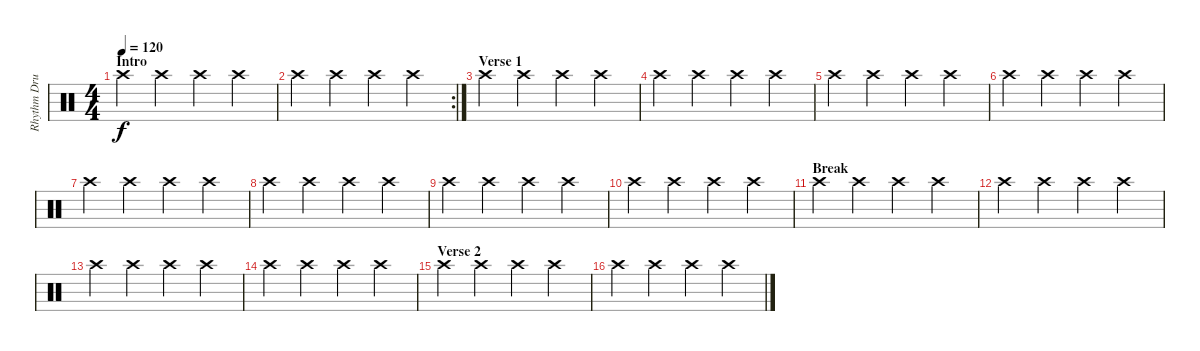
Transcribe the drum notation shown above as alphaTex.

\track ("Rhythm Drums (crash cymbal)" "Rhythm Dru") {instrument percussion}
\staff {score}
\articulation defaults
\ts (4 4)
\section ("" "Intro")
\tempo 120
\clef neutral
\ks c "Crash high (hit)".4{dy f} "Crash high (hit)".4 "Crash high (hit)".4 "Crash high (hit)".4
|
\rc 2 "Crash high (hit)".4 "Crash high (hit)".4 "Crash high (hit)".4 "Crash high (hit)".4
|
\section ("" "Verse 1")
"Crash high (hit)".4 "Crash high (hit)".4 "Crash high (hit)".4 "Crash high (hit)".4 |
"Crash high (hit)".4 "Crash high (hit)".4 "Crash high (hit)".4 "Crash high (hit)".4 |
"Crash high (hit)".4 "Crash high (hit)".4 "Crash high (hit)".4 "Crash high (hit)".4 |
"Crash high (hit)".4 "Crash high (hit)".4 "Crash high (hit)".4 "Crash high (hit)".4 |
"Crash high (hit)".4 "Crash high (hit)".4 "Crash high (hit)".4 "Crash high (hit)".4 |
"Crash high (hit)".4 "Crash high (hit)".4 "Crash high (hit)".4 "Crash high (hit)".4 |
"Crash high (hit)".4 "Crash high (hit)".4 "Crash high (hit)".4 "Crash high (hit)".4 |
"Crash high (hit)".4 "Crash high (hit)".4 "Crash high (hit)".4 "Crash high (hit)".4 |
\section ("" "Break")
"Crash high (hit)".4 "Crash high (hit)".4 "Crash high (hit)".4 "Crash high (hit)".4 |
"Crash high (hit)".4 "Crash high (hit)".4 "Crash high (hit)".4 "Crash high (hit)".4 |
"Crash high (hit)".4 "Crash high (hit)".4 "Crash high (hit)".4 "Crash high (hit)".4 |
"Crash high (hit)".4 "Crash high (hit)".4 "Crash high (hit)".4 "Crash high (hit)".4 |
\section ("" "Verse 2")
"Crash high (hit)".4 "Crash high (hit)".4 "Crash high (hit)".4 "Crash high (hit)".4 |
"Crash high (hit)".4 "Crash high (hit)".4 "Crash high (hit)".4 "Crash high (hit)".4
